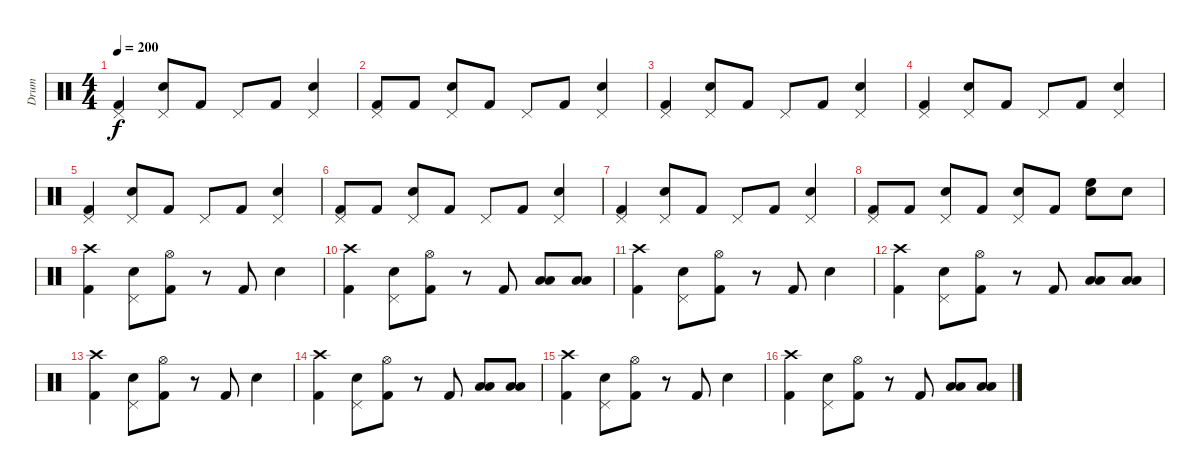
\track ("Drum" "Drum") {instrument percussion}
\staff {score}
\articulation defaults
\ts (4 4)
\tempo 200
\clef neutral
\ks c
("Pedal Hi-Hat (hit)" "Kick (hit) 2").4{dy f} ("Pedal Hi-Hat (hit)" "Electric Snare (hit)").8 "Kick (hit) 2".8 "Pedal Hi-Hat (hit)".8 "Kick (hit) 2".8 ("Pedal Hi-Hat (hit)" "Electric Snare (hit)").4 |
("Pedal Hi-Hat (hit)" "Kick (hit) 2").8 "Kick (hit) 2".8 ("Pedal Hi-Hat (hit)" "Electric Snare (hit)").8 "Kick (hit) 2".8 "Pedal Hi-Hat (hit)".8 "Kick (hit) 2".8 ("Pedal Hi-Hat (hit)" "Electric Snare (hit)").4 |
("Pedal Hi-Hat (hit)" "Kick (hit) 2").4 ("Pedal Hi-Hat (hit)" "Electric Snare (hit)").8 "Kick (hit) 2".8 "Pedal Hi-Hat (hit)".8 "Kick (hit) 2".8 ("Pedal Hi-Hat (hit)" "Electric Snare (hit)").4 |
("Pedal Hi-Hat (hit)" "Kick (hit) 2").4 ("Pedal Hi-Hat (hit)" "Electric Snare (hit)").8 "Kick (hit) 2".8 "Pedal Hi-Hat (hit)".8 "Kick (hit) 2".8 ("Pedal Hi-Hat (hit)" "Electric Snare (hit)").4 |
("Pedal Hi-Hat (hit)" "Kick (hit) 2").4 ("Pedal Hi-Hat (hit)" "Electric Snare (hit)").8 "Kick (hit) 2".8 "Pedal Hi-Hat (hit)".8 "Kick (hit) 2".8 ("Pedal Hi-Hat (hit)" "Electric Snare (hit)").4 |
("Pedal Hi-Hat (hit)" "Kick (hit) 2").8 "Kick (hit) 2".8 ("Pedal Hi-Hat (hit)" "Electric Snare (hit)").8 "Kick (hit) 2".8 "Pedal Hi-Hat (hit)".8 "Kick (hit) 2".8 ("Pedal Hi-Hat (hit)" "Electric Snare (hit)").4 |
("Pedal Hi-Hat (hit)" "Kick (hit) 2").4 ("Pedal Hi-Hat (hit)" "Electric Snare (hit)").8 "Kick (hit) 2".8 "Pedal Hi-Hat (hit)".8 "Kick (hit) 2".8 ("Pedal Hi-Hat (hit)" "Electric Snare (hit)").4 |
("Pedal Hi-Hat (hit)" "Kick (hit) 2").8 "Kick (hit) 2".8 ("Pedal Hi-Hat (hit)" "Electric Snare (hit)").8 "Kick (hit) 2".8 ("Pedal Hi-Hat (hit)" "Electric Snare (hit)").8 "Kick (hit) 2".8 ("High Floor Tom (hit)" "Electric Snare (hit)").8 "Electric Snare (hit)".8 |
("Crash high (hit)" "Kick (hit) 2").4 ("Pedal Hi-Hat (hit)" "Electric Snare (hit)").8 ("Hi-Hat (open)" "Kick (hit) 2").8 r.8 "Kick (hit) 2".8 "Electric Snare (hit)".4 |
("Crash high (hit)" "Kick (hit) 2").4 ("Pedal Hi-Hat (hit)" "Electric Snare (hit)").8 ("Hi-Hat (open)" "Kick (hit) 2").8 r.8 "Kick (hit) 2".8 ("Low Tom (hit)" "Low Floor Tom (hit)").8 ("Low Tom (hit)" "Low Floor Tom (hit)").8 |
("Crash high (hit)" "Kick (hit) 2").4 ("Pedal Hi-Hat (hit)" "Electric Snare (hit)").8 ("Hi-Hat (open)" "Kick (hit) 2").8 r.8 "Kick (hit) 2".8 "Electric Snare (hit)".4 |
("Crash high (hit)" "Kick (hit) 2").4 ("Pedal Hi-Hat (hit)" "Electric Snare (hit)").8 ("Hi-Hat (open)" "Kick (hit) 2").8 r.8 "Kick (hit) 2".8 ("Low Tom (hit)" "Low Floor Tom (hit)").8 ("Low Tom (hit)" "Low Floor Tom (hit)").8 |
("Crash high (hit)" "Kick (hit) 2").4 ("Pedal Hi-Hat (hit)" "Electric Snare (hit)").8 ("Hi-Hat (open)" "Kick (hit) 2").8 r.8 "Kick (hit) 2".8 "Electric Snare (hit)".4 |
("Crash high (hit)" "Kick (hit) 2").4 ("Pedal Hi-Hat (hit)" "Electric Snare (hit)").8 ("Hi-Hat (open)" "Kick (hit) 2").8 r.8 "Kick (hit) 2".8 ("Low Tom (hit)" "Low Floor Tom (hit)").8 ("Low Tom (hit)" "Low Floor Tom (hit)").8 |
("Crash high (hit)" "Kick (hit) 2").4 ("Pedal Hi-Hat (hit)" "Electric Snare (hit)").8 ("Hi-Hat (open)" "Kick (hit) 2").8 r.8 "Kick (hit) 2".8 "Electric Snare (hit)".4 |
("Crash high (hit)" "Kick (hit) 2").4 ("Pedal Hi-Hat (hit)" "Electric Snare (hit)").8 ("Hi-Hat (open)" "Kick (hit) 2").8 r.8 "Kick (hit) 2".8 ("Low Tom (hit)" "Low Floor Tom (hit)").8 ("Low Tom (hit)" "Low Floor Tom (hit)").8
